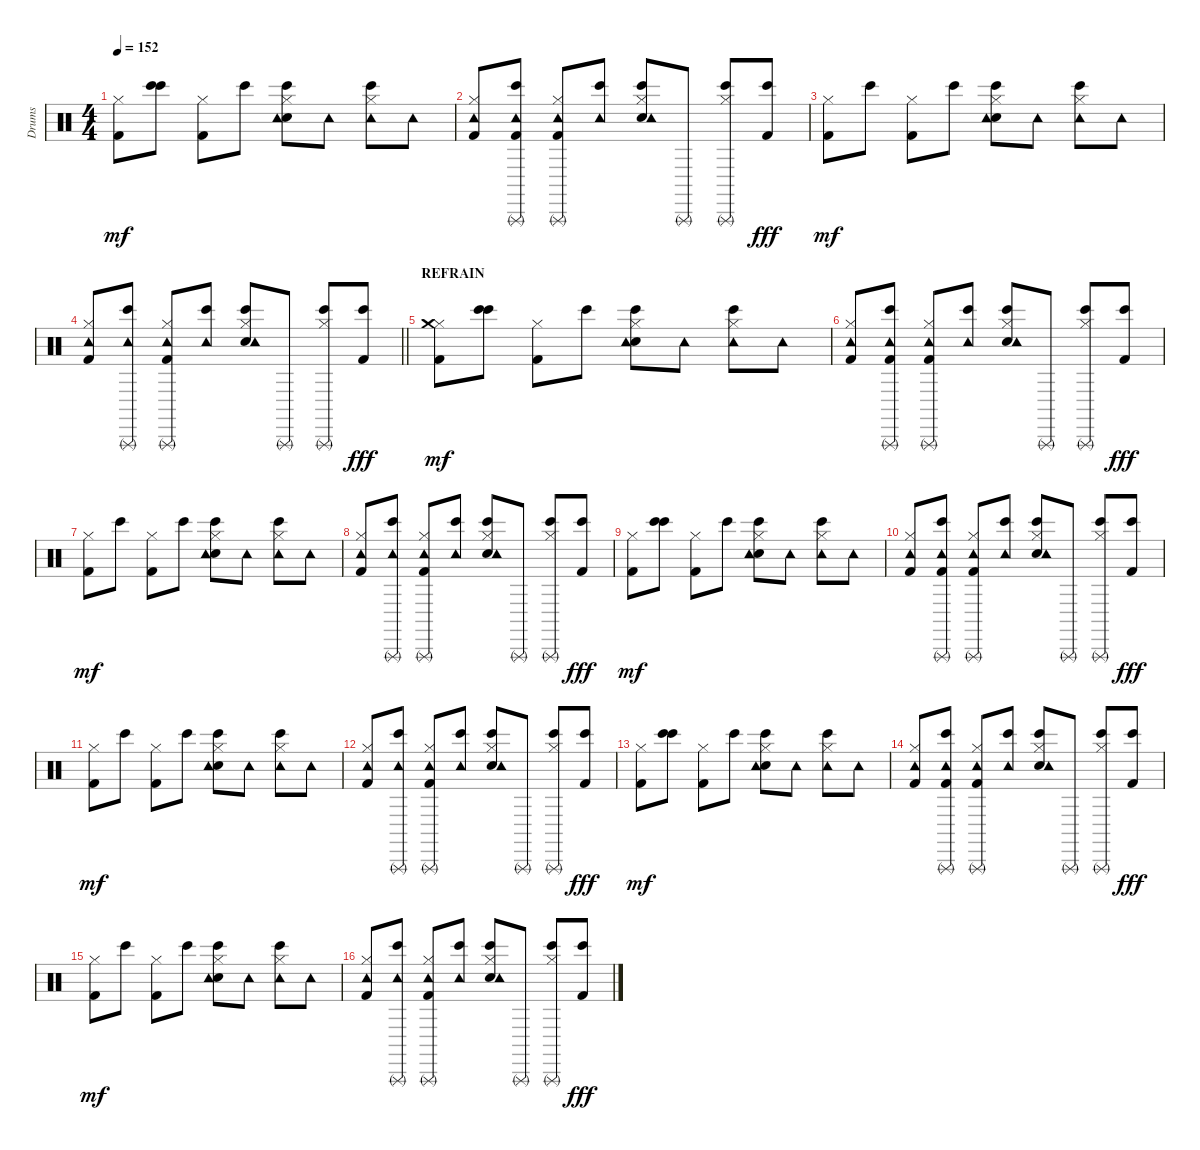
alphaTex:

\track ("Drums" "Drums") {instrument percussion}
\staff {score}
\articulation defaults
\ts (4 4)
\tempo 152
\clef neutral
\ks c
("Kick (hit) 2" "Hi-Hat (closed)").8{dy mf} ("Bongo High (hit)" "Bongo High (hit)").8 ("Kick (hit) 2" "Hi-Hat (closed)").8 "Bongo High (hit)".8 ("Bongo High (hit)" "Electric Snare (hit)" "Hi-Hat (closed)" "Tambourine (hit)").8 "Tambourine (hit)".8 ("Tambourine (hit)" "Bongo High (hit)" "Hi-Hat (closed)").8 "Tambourine (hit)".8 |
("Tambourine (hit)" "Kick (hit) 2" "Hi-Hat (closed)").8 ("Tambourine (hit)" "Bongo High (hit)" "Kick (hit) 2" "Triangle (rnute)").8 ("Kick (hit) 2" "Hi-Hat (closed)" "Triangle (rnute)" "Tambourine (hit)").8 ("Tambourine (hit)" "Bongo High (hit)").8 ("Bongo High (hit)" "Electric Snare (hit)" "Hi-Hat (closed)" "Tambourine (hit)").8 "Triangle (rnute)".8 ("Bongo High (hit)" "Hi-Hat (closed)" "Triangle (rnute)").8 ("Bongo High (hit)" "Kick (hit) 2").8{dy fff} |
("Kick (hit) 2" "Hi-Hat (closed)").8{dy mf} "Bongo High (hit)".8 ("Kick (hit) 2" "Hi-Hat (closed)").8 "Bongo High (hit)".8 ("Bongo High (hit)" "Electric Snare (hit)" "Hi-Hat (closed)" "Tambourine (hit)").8 "Tambourine (hit)".8 ("Tambourine (hit)" "Bongo High (hit)" "Hi-Hat (closed)").8 "Tambourine (hit)".8 |
\barLineRight lightlight
("Tambourine (hit)" "Kick (hit) 2" "Hi-Hat (closed)").8 ("Tambourine (hit)" "Bongo High (hit)" "Triangle (rnute)").8 ("Kick (hit) 2" "Hi-Hat (closed)" "Triangle (rnute)" "Tambourine (hit)").8 ("Tambourine (hit)" "Bongo High (hit)").8 ("Bongo High (hit)" "Electric Snare (hit)" "Hi-Hat (closed)" "Tambourine (hit)").8 "Triangle (rnute)".8 ("Bongo High (hit)" "Hi-Hat (closed)" "Triangle (rnute)").8 ("Bongo High (hit)" "Kick (hit) 2").8{dy fff} |
\section ("" "REFRAIN")
("Kick (hit) 2" "Hi-Hat (closed)" "Crash medium (hit)").8{dy mf} ("Bongo High (hit)" "Bongo High (hit)").8 ("Kick (hit) 2" "Hi-Hat (closed)").8 "Bongo High (hit)".8 ("Bongo High (hit)" "Electric Snare (hit)" "Hi-Hat (closed)" "Tambourine (hit)").8 "Tambourine (hit)".8 ("Tambourine (hit)" "Bongo High (hit)" "Hi-Hat (closed)").8 "Tambourine (hit)".8 |
("Tambourine (hit)" "Kick (hit) 2" "Hi-Hat (closed)").8 ("Tambourine (hit)" "Bongo High (hit)" "Kick (hit) 2" "Triangle (rnute)").8 ("Kick (hit) 2" "Hi-Hat (closed)" "Triangle (rnute)" "Tambourine (hit)").8 ("Tambourine (hit)" "Bongo High (hit)").8 ("Bongo High (hit)" "Electric Snare (hit)" "Hi-Hat (closed)" "Tambourine (hit)").8 "Triangle (rnute)".8 ("Bongo High (hit)" "Hi-Hat (closed)" "Triangle (rnute)").8 ("Bongo High (hit)" "Kick (hit) 2").8{dy fff} |
("Kick (hit) 2" "Hi-Hat (closed)").8{dy mf} "Bongo High (hit)".8 ("Kick (hit) 2" "Hi-Hat (closed)").8 "Bongo High (hit)".8 ("Bongo High (hit)" "Electric Snare (hit)" "Hi-Hat (closed)" "Tambourine (hit)").8 "Tambourine (hit)".8 ("Tambourine (hit)" "Bongo High (hit)" "Hi-Hat (closed)").8 "Tambourine (hit)".8 |
("Tambourine (hit)" "Kick (hit) 2" "Hi-Hat (closed)").8 ("Tambourine (hit)" "Bongo High (hit)" "Triangle (rnute)").8 ("Kick (hit) 2" "Hi-Hat (closed)" "Triangle (rnute)" "Tambourine (hit)").8 ("Tambourine (hit)" "Bongo High (hit)").8 ("Bongo High (hit)" "Electric Snare (hit)" "Hi-Hat (closed)" "Tambourine (hit)").8 "Triangle (rnute)".8 ("Bongo High (hit)" "Hi-Hat (closed)" "Triangle (rnute)").8 ("Bongo High (hit)" "Kick (hit) 2").8{dy fff} |
("Kick (hit) 2" "Hi-Hat (closed)").8{dy mf} ("Bongo High (hit)" "Bongo High (hit)").8 ("Kick (hit) 2" "Hi-Hat (closed)").8 "Bongo High (hit)".8 ("Bongo High (hit)" "Electric Snare (hit)" "Hi-Hat (closed)" "Tambourine (hit)").8 "Tambourine (hit)".8 ("Tambourine (hit)" "Bongo High (hit)" "Hi-Hat (closed)").8 "Tambourine (hit)".8 |
("Tambourine (hit)" "Kick (hit) 2" "Hi-Hat (closed)").8 ("Tambourine (hit)" "Bongo High (hit)" "Kick (hit) 2" "Triangle (rnute)").8 ("Kick (hit) 2" "Hi-Hat (closed)" "Triangle (rnute)" "Tambourine (hit)").8 ("Tambourine (hit)" "Bongo High (hit)").8 ("Bongo High (hit)" "Electric Snare (hit)" "Hi-Hat (closed)" "Tambourine (hit)").8 "Triangle (rnute)".8 ("Bongo High (hit)" "Hi-Hat (closed)" "Triangle (rnute)").8 ("Bongo High (hit)" "Kick (hit) 2").8{dy fff} |
("Kick (hit) 2" "Hi-Hat (closed)").8{dy mf} "Bongo High (hit)".8 ("Kick (hit) 2" "Hi-Hat (closed)").8 "Bongo High (hit)".8 ("Bongo High (hit)" "Electric Snare (hit)" "Hi-Hat (closed)" "Tambourine (hit)").8 "Tambourine (hit)".8 ("Tambourine (hit)" "Bongo High (hit)" "Hi-Hat (closed)").8 "Tambourine (hit)".8 |
("Tambourine (hit)" "Kick (hit) 2" "Hi-Hat (closed)").8 ("Tambourine (hit)" "Bongo High (hit)" "Triangle (rnute)").8 ("Kick (hit) 2" "Hi-Hat (closed)" "Triangle (rnute)" "Tambourine (hit)").8 ("Tambourine (hit)" "Bongo High (hit)").8 ("Bongo High (hit)" "Electric Snare (hit)" "Hi-Hat (closed)" "Tambourine (hit)").8 "Triangle (rnute)".8 ("Bongo High (hit)" "Hi-Hat (closed)" "Triangle (rnute)").8 ("Bongo High (hit)" "Kick (hit) 2").8{dy fff} |
("Kick (hit) 2" "Hi-Hat (closed)").8{dy mf} ("Bongo High (hit)" "Bongo High (hit)").8 ("Kick (hit) 2" "Hi-Hat (closed)").8 "Bongo High (hit)".8 ("Bongo High (hit)" "Electric Snare (hit)" "Hi-Hat (closed)" "Tambourine (hit)").8 "Tambourine (hit)".8 ("Tambourine (hit)" "Bongo High (hit)" "Hi-Hat (closed)").8 "Tambourine (hit)".8 |
("Tambourine (hit)" "Kick (hit) 2" "Hi-Hat (closed)").8 ("Tambourine (hit)" "Bongo High (hit)" "Kick (hit) 2" "Triangle (rnute)").8 ("Kick (hit) 2" "Hi-Hat (closed)" "Triangle (rnute)" "Tambourine (hit)").8 ("Tambourine (hit)" "Bongo High (hit)").8 ("Bongo High (hit)" "Electric Snare (hit)" "Hi-Hat (closed)" "Tambourine (hit)").8 "Triangle (rnute)".8 ("Bongo High (hit)" "Hi-Hat (closed)" "Triangle (rnute)").8 ("Bongo High (hit)" "Kick (hit) 2").8{dy fff} |
("Kick (hit) 2" "Hi-Hat (closed)").8{dy mf} "Bongo High (hit)".8 ("Kick (hit) 2" "Hi-Hat (closed)").8 "Bongo High (hit)".8 ("Bongo High (hit)" "Electric Snare (hit)" "Hi-Hat (closed)" "Tambourine (hit)").8 "Tambourine (hit)".8 ("Tambourine (hit)" "Bongo High (hit)" "Hi-Hat (closed)").8 "Tambourine (hit)".8 |
("Tambourine (hit)" "Kick (hit) 2" "Hi-Hat (closed)").8 ("Tambourine (hit)" "Bongo High (hit)" "Triangle (rnute)").8 ("Kick (hit) 2" "Hi-Hat (closed)" "Triangle (rnute)" "Tambourine (hit)").8 ("Tambourine (hit)" "Bongo High (hit)").8 ("Bongo High (hit)" "Electric Snare (hit)" "Hi-Hat (closed)" "Tambourine (hit)").8 "Triangle (rnute)".8 ("Bongo High (hit)" "Hi-Hat (closed)" "Triangle (rnute)").8 ("Bongo High (hit)" "Kick (hit) 2").8{dy fff}
